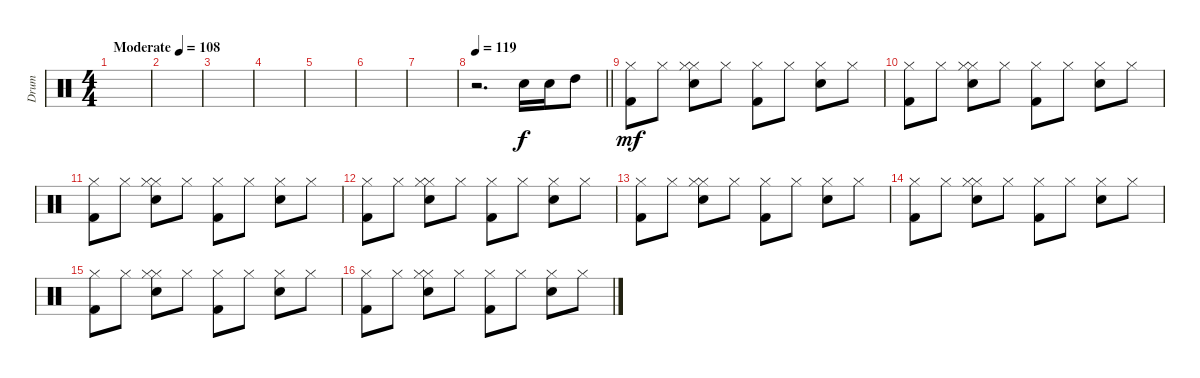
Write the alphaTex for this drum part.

\track ("Drum " "Drum ") {instrument percussion}
\staff {score}
\articulation defaults
\ts (4 4)
\tempo (108 "Moderate")
\clef neutral
\ks c
|
|
|
|
|
|
|
\tempo 108
\tempo 119
\barLineRight lightlight
r.2{d} "Snare (hit) 2".16 "Snare (hit) 2".16 "High Tom (hit)".8 |
("Hi-Hat (closed)" "Kick (hit) 2").8{dy mf} "Hi-Hat (closed)".8 ("Hi-Hat (closed)" "Hi-Hat (closed)" "Snare (hit) 2").8 "Hi-Hat (closed)".8 ("Hi-Hat (closed)" "Kick (hit) 2").8 "Hi-Hat (closed)".8 ("Hi-Hat (closed)" "Snare (hit) 2").8 "Hi-Hat (closed)".8 |
("Hi-Hat (closed)" "Kick (hit) 2").8 "Hi-Hat (closed)".8 ("Hi-Hat (closed)" "Hi-Hat (closed)" "Snare (hit) 2").8 "Hi-Hat (closed)".8 ("Hi-Hat (closed)" "Kick (hit) 2").8 "Hi-Hat (closed)".8 ("Hi-Hat (closed)" "Snare (hit) 2").8 "Hi-Hat (closed)".8 |
("Hi-Hat (closed)" "Kick (hit) 2").8 "Hi-Hat (closed)".8 ("Hi-Hat (closed)" "Hi-Hat (closed)" "Snare (hit) 2").8 "Hi-Hat (closed)".8 ("Hi-Hat (closed)" "Kick (hit) 2").8 "Hi-Hat (closed)".8 ("Hi-Hat (closed)" "Snare (hit) 2").8 "Hi-Hat (closed)".8 |
("Hi-Hat (closed)" "Kick (hit) 2").8 "Hi-Hat (closed)".8 ("Hi-Hat (closed)" "Hi-Hat (closed)" "Snare (hit) 2").8 "Hi-Hat (closed)".8 ("Hi-Hat (closed)" "Kick (hit) 2").8 "Hi-Hat (closed)".8 ("Hi-Hat (closed)" "Snare (hit) 2").8 "Hi-Hat (closed)".8 |
("Hi-Hat (closed)" "Kick (hit) 2").8 "Hi-Hat (closed)".8 ("Hi-Hat (closed)" "Hi-Hat (closed)" "Snare (hit) 2").8 "Hi-Hat (closed)".8 ("Hi-Hat (closed)" "Kick (hit) 2").8 "Hi-Hat (closed)".8 ("Hi-Hat (closed)" "Snare (hit) 2").8 "Hi-Hat (closed)".8 |
("Hi-Hat (closed)" "Kick (hit) 2").8 "Hi-Hat (closed)".8 ("Hi-Hat (closed)" "Hi-Hat (closed)" "Snare (hit) 2").8 "Hi-Hat (closed)".8 ("Hi-Hat (closed)" "Kick (hit) 2").8 "Hi-Hat (closed)".8 ("Hi-Hat (closed)" "Snare (hit) 2").8 "Hi-Hat (closed)".8 |
("Hi-Hat (closed)" "Kick (hit) 2").8 "Hi-Hat (closed)".8 ("Hi-Hat (closed)" "Hi-Hat (closed)" "Snare (hit) 2").8 "Hi-Hat (closed)".8 ("Hi-Hat (closed)" "Kick (hit) 2").8 "Hi-Hat (closed)".8 ("Hi-Hat (closed)" "Snare (hit) 2").8 "Hi-Hat (closed)".8 |
("Hi-Hat (closed)" "Kick (hit) 2").8 "Hi-Hat (closed)".8 ("Hi-Hat (closed)" "Hi-Hat (closed)" "Snare (hit) 2").8 "Hi-Hat (closed)".8 ("Hi-Hat (closed)" "Kick (hit) 2").8 "Hi-Hat (closed)".8 ("Hi-Hat (closed)" "Snare (hit) 2").8 "Hi-Hat (closed)".8
